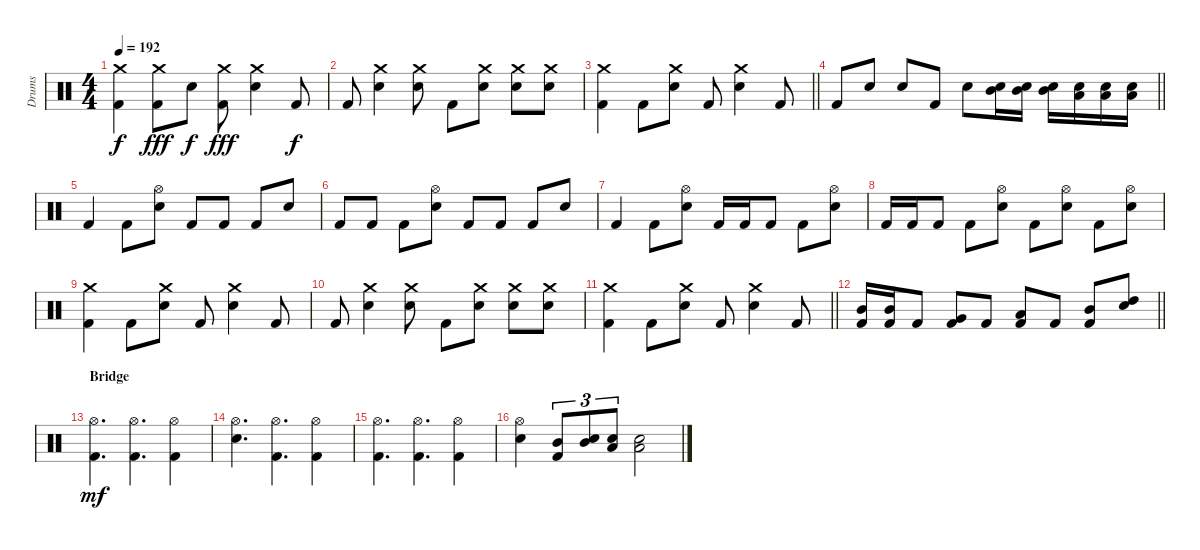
\track ("Drums" "Drums") {instrument percussion}
\staff {score}
\articulation defaults
\ts (4 4)
\tempo 192
\clef neutral
\ks c
("Kick (hit) 2" "Crash medium (hit)").4{dy f} ("Kick (hit) 2" "Crash medium (hit)").8{dy fff} "Electric Snare (hit)".8{dy f} ("Kick (hit) 2" "Crash medium (hit)").8{dy fff} ("Electric Snare (hit)" "Crash medium (hit)").4 "Kick (hit) 2".8{dy f} |
"Kick (hit) 2".8 ("Electric Snare (hit)" "Crash medium (hit)").4 ("Electric Snare (hit)" "Crash medium (hit)").8 "Kick (hit) 2".8 ("Electric Snare (hit)" "Crash medium (hit)").8 ("Electric Snare (hit)" "Crash medium (hit)").8 ("Electric Snare (hit)" "Crash medium (hit)").8 |
\barLineRight lightlight
("Kick (hit) 2" "Crash medium (hit)").4 "Kick (hit) 2".8 ("Electric Snare (hit)" "Crash medium (hit)").8 "Kick (hit) 2".8 ("Electric Snare (hit)" "Crash medium (hit)").4 "Kick (hit) 2".8 |
\barLineRight lightlight "Kick (hit) 2".8 "Electric Snare (hit)".8 "Electric Snare (hit)".8 "Kick (hit) 2".8 "Electric Snare (hit)".8
("Electric Snare (hit)" "Mid Tom (hit)").16 ("Electric Snare (hit)" "Mid Tom (hit)").16 ("Electric Snare (hit)" "Mid Tom (hit)").16 ("Electric Snare (hit)" "Low Tom (hit)").16 ("Electric Snare (hit)" "Low Tom (hit)").16 ("Electric Snare (hit)" "Low Tom (hit)").16 |
"Kick (hit) 2".4 "Kick (hit) 2".8 ("Electric Snare (hit)" "Hi-Hat (open)").8 "Kick (hit) 2".8 "Kick (hit) 2".8 "Kick (hit) 2".8 "Electric Snare (hit)".8 |
"Kick (hit) 2".8 "Kick (hit) 2".8 "Kick (hit) 2".8 ("Electric Snare (hit)" "Hi-Hat (open)").8 "Kick (hit) 2".8 "Kick (hit) 2".8 "Kick (hit) 2".8 "Electric Snare (hit)".8 |
"Kick (hit) 2".4 "Kick (hit) 2".8 ("Electric Snare (hit)" "Hi-Hat (open)").8 "Kick (hit) 2".16 "Kick (hit) 2".16 "Kick (hit) 2".8 "Kick (hit) 2".8 ("Electric Snare (hit)" "Hi-Hat (open)").8 |
"Kick (hit) 2".16 "Kick (hit) 2".16 "Kick (hit) 2".8 "Kick (hit) 2".8 ("Hi-Hat (open)" "Electric Snare (hit)").8 "Kick (hit) 2".8 ("Hi-Hat (open)" "Electric Snare (hit)").8 "Kick (hit) 2".8 ("Hi-Hat (open)" "Electric Snare (hit)").8 |
("Kick (hit) 2" "Crash medium (hit)").4 "Kick (hit) 2".8 ("Electric Snare (hit)" "Crash medium (hit)").8 "Kick (hit) 2".8 ("Electric Snare (hit)" "Crash medium (hit)").4 "Kick (hit) 2".8 |
"Kick (hit) 2".8 ("Electric Snare (hit)" "Crash medium (hit)").4 ("Electric Snare (hit)" "Crash medium (hit)").8 "Kick (hit) 2".8 ("Electric Snare (hit)" "Crash medium (hit)").8 ("Electric Snare (hit)" "Crash medium (hit)").8 ("Electric Snare (hit)" "Crash medium (hit)").8 |
\barLineRight lightlight
("Kick (hit) 2" "Crash medium (hit)").4 "Kick (hit) 2".8 ("Electric Snare (hit)" "Crash medium (hit)").8 "Kick (hit) 2".8 ("Electric Snare (hit)" "Crash medium (hit)").4 "Kick (hit) 2".8 |
\barLineRight lightlight
("Mid Tom (hit)" "Kick (hit) 2").16 ("Mid Tom (hit)" "Kick (hit) 2").16 "Kick (hit) 2".8 ("Very Low Tom (hit)" "Kick (hit) 2").8 "Kick (hit) 2".8 ("Low Floor Tom (hit)" "Kick (hit) 2").8 "Kick (hit) 2".8 ("Mid Tom (hit)" "Kick (hit) 2").8 ("High Tom (hit)" "Electric Snare (hit)").8 |
\section ("" "Bridge")
("Hi-Hat (open)" "Kick (hit) 2").4{d dy mf} ("Hi-Hat (open)" "Kick (hit) 2").4{d} ("Hi-Hat (open)" "Kick (hit) 2").4 |
("Hi-Hat (open)" "Electric Snare (hit)").4{d} ("Hi-Hat (open)" "Kick (hit) 2").4{d} ("Hi-Hat (open)" "Kick (hit) 2").4 |
("Hi-Hat (open)" "Kick (hit) 2").4{d} ("Hi-Hat (open)" "Kick (hit) 2").4{d} ("Hi-Hat (open)" "Kick (hit) 2").4 |
("Hi-Hat (open)" "Electric Snare (hit)").4 ("Mid Tom (hit)" "Kick (hit) 2").8{tu (3 2)} ("Mid Tom (hit)" "Electric Snare (hit)").8{tu (3 2)} ("Low Tom (hit)" "Electric Snare (hit)").8{tu (3 2)} ("Low Tom (hit)" "Electric Snare (hit)").2
